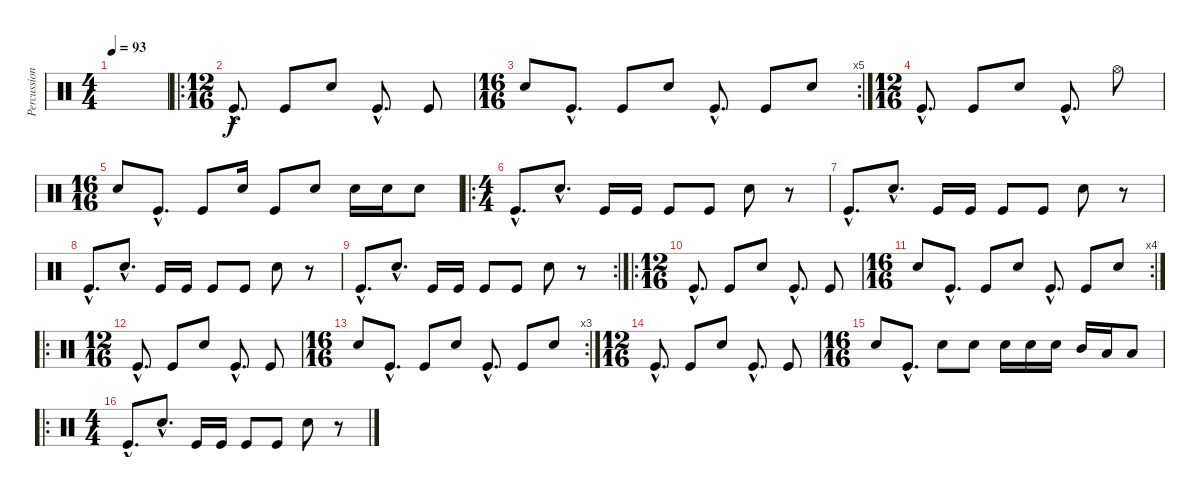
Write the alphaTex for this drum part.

\track ("Percussion" "Percussion") {instrument percussion}
\staff {score}
\articulation defaults
\ts (4 4)
\tempo 93
\clef neutral
\ks c
|
\ro
\ts (12 16)
"Kick (hit)"{hac}.8{d} "Kick (hit)".8 "Electric Snare (hit)".8 "Kick (hit)"{hac}.8{d} "Kick (hit)".8 |
\rc 5
\ts (16 16)
"Electric Snare (hit)".8 "Kick (hit)"{hac}.8{d} "Kick (hit)".8 "Electric Snare (hit)".8 "Kick (hit)"{hac}.8{d} "Kick (hit)".8 "Electric Snare (hit)".8 |
\ts (12 16)
"Kick (hit)"{hac}.8{d} "Kick (hit)".8 "Electric Snare (hit)".8 "Kick (hit)"{hac}.8{d} "Hi-Hat (open)".8 |
\ts (16 16)
"Electric Snare (hit)".8 "Kick (hit)"{hac}.8{d} "Kick (hit)".8 "Electric Snare (hit)".16 "Kick (hit)".8 "Electric Snare (hit)".8 "Electric Snare (hit)".16 "Electric Snare (hit)".16 "Electric Snare (hit)".8 |
\ro
\ts (4 4)
"Kick (hit)"{hac}.8{d} "Electric Snare (hit)"{hac}.8{d} "Kick (hit)".16 "Kick (hit)".16 "Kick (hit)".8 "Kick (hit)".8 "Electric Snare (hit)".8 r.8 |
"Kick (hit)"{hac}.8{d} "Electric Snare (hit)"{hac}.8{d} "Kick (hit)".16 "Kick (hit)".16 "Kick (hit)".8 "Kick (hit)".8 "Electric Snare (hit)".8 r.8 |
"Kick (hit)"{hac}.8{d} "Electric Snare (hit)"{hac}.8{d} "Kick (hit)".16 "Kick (hit)".16 "Kick (hit)".8 "Kick (hit)".8 "Electric Snare (hit)".8 r.8 |
\rc 2 "Kick (hit)"{hac}.8{d} "Electric Snare (hit)"{hac}.8{d} "Kick (hit)".16 "Kick (hit)".16 "Kick (hit)".8 "Kick (hit)".8 "Electric Snare (hit)".8
r.8 |
\ro
\ts (12 16)
"Kick (hit)"{hac}.8{d} "Kick (hit)".8 "Electric Snare (hit)".8 "Kick (hit)"{hac}.8{d} "Kick (hit)".8 |
\rc 4
\ts (16 16)
"Electric Snare (hit)".8 "Kick (hit)"{hac}.8{d} "Kick (hit)".8 "Electric Snare (hit)".8 "Kick (hit)"{hac}.8{d} "Kick (hit)".8 "Electric Snare (hit)".8 |
\ro
\ts (12 16)
"Kick (hit)"{hac}.8{d} "Kick (hit)".8 "Electric Snare (hit)".8 "Kick (hit)"{hac}.8{d} "Kick (hit)".8 |
\rc 3
\ts (16 16)
"Electric Snare (hit)".8 "Kick (hit)"{hac}.8{d} "Kick (hit)".8 "Electric Snare (hit)".8 "Kick (hit)"{hac}.8{d} "Kick (hit)".8 "Electric Snare (hit)".8 |
\ts (12 16)
"Kick (hit)"{hac}.8{d} "Kick (hit)".8 "Electric Snare (hit)".8 "Kick (hit)"{hac}.8{d} "Kick (hit)".8 |
\ts (16 16)
"Electric Snare (hit)".8 "Kick (hit)"{hac}.8{d} "Electric Snare (hit)".8 "Electric Snare (hit)".8 "Electric Snare (hit)".16 "Electric Snare (hit)".16 "Electric Snare (hit)".16 "Mid Tom (hit)".16 "Low Tom (hit)".16 "Low Tom (hit)".8 |
\ro
\ts (4 4)
"Kick (hit)"{hac}.8{d} "Electric Snare (hit)"{hac}.8{d} "Kick (hit)".16 "Kick (hit)".16 "Kick (hit)".8 "Kick (hit)".8 "Electric Snare (hit)".8 r.8
